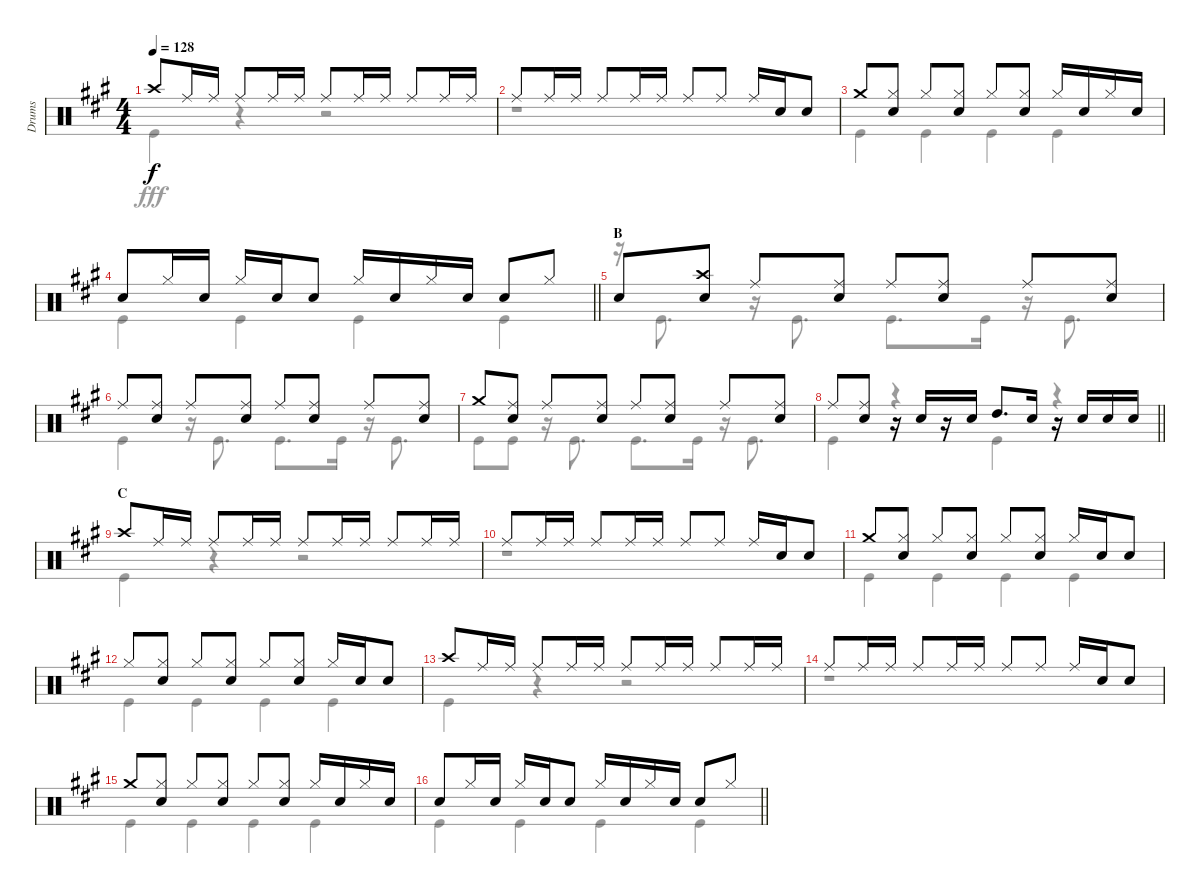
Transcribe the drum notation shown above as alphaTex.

\track ("Drums" "Drums") {instrument percussion}
\staff {score}
\articulation defaults
\voice
\ts (4 4)
\tempo 128
\clef neutral
\ks a "Crash high (hit)".8{dy f} "Ride (middle)".16 "Ride (middle)".16 "Ride (middle)".8 "Ride (middle)".16 "Ride (middle)".16 "Ride (middle)".8 "Ride (middle)".16 "Ride (middle)".16 "Ride (middle)".8 "Ride (middle)".16 "Ride (middle)".16
|
"Ride (middle)".8 "Ride (middle)".16 "Ride (middle)".16 "Ride (middle)".8 "Ride (middle)".16 "Ride (middle)".16 "Ride (middle)".8 "Ride (middle)".8 "Ride (middle)".16 "Snare (hit) 2".16 "Snare (hit) 2".8 |
"Crash medium (hit)".8 ("Hi-Hat (closed)" "Snare (hit) 2").8 "Hi-Hat (closed)".8 ("Hi-Hat (closed)" "Snare (hit) 2").8 "Hi-Hat (closed)".8 ("Snare (hit) 2" "Hi-Hat (closed)").8 "Hi-Hat (closed)".16 "Snare (hit) 2".16 "Hi-Hat (closed)".16 "Snare (hit) 2".16 |
\barLineRight lightlight "Snare (hit) 2".8 "Hi-Hat (closed)".16 "Snare (hit) 2".16 "Hi-Hat (closed)".16 "Snare (hit) 2".16 "Snare (hit) 2".8 "Hi-Hat (closed)".16 "Snare (hit) 2".16 "Hi-Hat (closed)".16 "Snare (hit) 2".16 "Snare (hit) 2".8 "Hi-Hat (closed)".8
|
\section ("" "B")
"Snare (hit) 2".8 ("Crash high (hit)" "Snare (hit) 2").8 "Ride (middle)".8 ("Ride (middle)" "Snare (hit) 2").8 "Ride (middle)".8 ("Ride (middle)" "Snare (hit) 2").8 "Ride (middle)".8 ("Ride (middle)" "Snare (hit) 2").8 |
"Ride (middle)".8 ("Ride (middle)" "Snare (hit) 2").8 "Ride (middle)".8 ("Ride (middle)" "Snare (hit) 2").8 "Ride (middle)".8 ("Ride (middle)" "Snare (hit) 2").8 "Ride (middle)".8 ("Ride (middle)" "Snare (hit) 2").8 |
"Crash medium (hit)".8 ("Ride (middle)" "Snare (hit) 2").8 "Ride (middle)".8 ("Ride (middle)" "Snare (hit) 2").8 "Ride (middle)".8 ("Ride (middle)" "Snare (hit) 2").8 "Ride (middle)".8 ("Ride (middle)" "Snare (hit) 2").8 |
\barLineRight lightlight "Ride (middle)".8
("Ride (middle)" "Snare (hit) 2").8 r.16 "Snare (hit) 2".16 r.16 "Snare (hit) 2".16 "High Tom (hit)".8{d} "Snare (hit) 2".16 r.16 "Snare (hit) 2".16 "Snare (hit) 2".16 "Snare (hit) 2".16 |
\section ("" "C")
"Crash high (hit)".8 "Ride (middle)".16 "Ride (middle)".16 "Ride (middle)".8 "Ride (middle)".16 "Ride (middle)".16 "Ride (middle)".8 "Ride (middle)".16 "Ride (middle)".16 "Ride (middle)".8 "Ride (middle)".16 "Ride (middle)".16 |
"Ride (middle)".8 "Ride (middle)".16 "Ride (middle)".16 "Ride (middle)".8 "Ride (middle)".16 "Ride (middle)".16 "Ride (middle)".8 "Ride (middle)".8 "Ride (middle)".16 "Snare (hit) 2".16 "Snare (hit) 2".8 |
"Crash medium (hit)".8 ("Hi-Hat (closed)" "Snare (hit) 2").8 "Hi-Hat (closed)".8 ("Hi-Hat (closed)" "Snare (hit) 2").8 "Hi-Hat (closed)".8 ("Hi-Hat (closed)" "Snare (hit) 2").8 "Hi-Hat (closed)".16 "Snare (hit) 2".16 "Snare (hit) 2".8 |
"Hi-Hat (closed)".8 ("Hi-Hat (closed)" "Snare (hit) 2").8 "Hi-Hat (closed)".8 ("Hi-Hat (closed)" "Snare (hit) 2").8 "Hi-Hat (closed)".8 ("Hi-Hat (closed)" "Snare (hit) 2").8 "Hi-Hat (closed)".16 "Snare (hit) 2".16 "Snare (hit) 2".8 |
"Crash high (hit)".8 "Ride (middle)".16 "Ride (middle)".16 "Ride (middle)".8 "Ride (middle)".16 "Ride (middle)".16 "Ride (middle)".8 "Ride (middle)".16 "Ride (middle)".16 "Ride (middle)".8 "Ride (middle)".16 "Ride (middle)".16 |
"Ride (middle)".8 "Ride (middle)".16 "Ride (middle)".16 "Ride (middle)".8 "Ride (middle)".16 "Ride (middle)".16 "Ride (middle)".8 "Ride (middle)".8 "Ride (middle)".16 "Snare (hit) 2".16 "Snare (hit) 2".8 |
"Crash medium (hit)".8 ("Hi-Hat (closed)" "Snare (hit) 2").8 "Hi-Hat (closed)".8 ("Hi-Hat (closed)" "Snare (hit) 2").8 "Hi-Hat (closed)".8 ("Snare (hit) 2" "Hi-Hat (closed)").8 "Hi-Hat (closed)".16 "Snare (hit) 2".16 "Hi-Hat (closed)".16 "Snare (hit) 2".16 |
\barLineRight lightlight "Snare (hit) 2".8 "Hi-Hat (closed)".16 "Snare (hit) 2".16 "Hi-Hat (closed)".16 "Snare (hit) 2".16 "Snare (hit) 2".8 "Hi-Hat (closed)".16 "Snare (hit) 2".16 "Hi-Hat (closed)".16 "Snare (hit) 2".16 "Snare (hit) 2".8 "Hi-Hat (closed)".8
\voice
\clef neutral
\ottava regular
\simile none
\ks a "Kick (hit)".4{dy fff}
r.4 r.2 |
r.1 |
"Kick (hit)".4 "Kick (hit)".4 "Kick (hit)".4 "Kick (hit)".4 |
\barLineRight lightlight "Kick (hit)".4 "Kick (hit)".4 "Kick (hit)".4 "Kick (hit)".4
|
r.16 "Kick (hit)".8{d} r.16 "Kick (hit)".8{d} "Kick (hit)".8{d} "Kick (hit)".16 r.16 "Kick (hit)".8{d} |
"Kick (hit)".4 r.16 "Kick (hit)".8{d} "Kick (hit)".8{d} "Kick (hit)".16 r.16 "Kick (hit)".8{d} |
"Kick (hit)".8 "Kick (hit)".8 r.16 "Kick (hit)".8{d} "Kick (hit)".8{d} "Kick (hit)".16 r.16 "Kick (hit)".8{d} |
\barLineRight lightlight "Kick (hit)".4
r.4 "Kick (hit)".4 r.4 |
"Kick (hit)".4 r.4 r.2 |
r.1 |
"Kick (hit)".4 "Kick (hit)".4 "Kick (hit)".4 "Kick (hit)".4 |
"Kick (hit)".4 "Kick (hit)".4 "Kick (hit)".4 "Kick (hit)".4 |
"Kick (hit)".4 r.4 r.2 |
r.1 |
"Kick (hit)".4 "Kick (hit)".4 "Kick (hit)".4 "Kick (hit)".4 |
\barLineRight lightlight "Kick (hit)".4 "Kick (hit)".4 "Kick (hit)".4 "Kick (hit)".4
